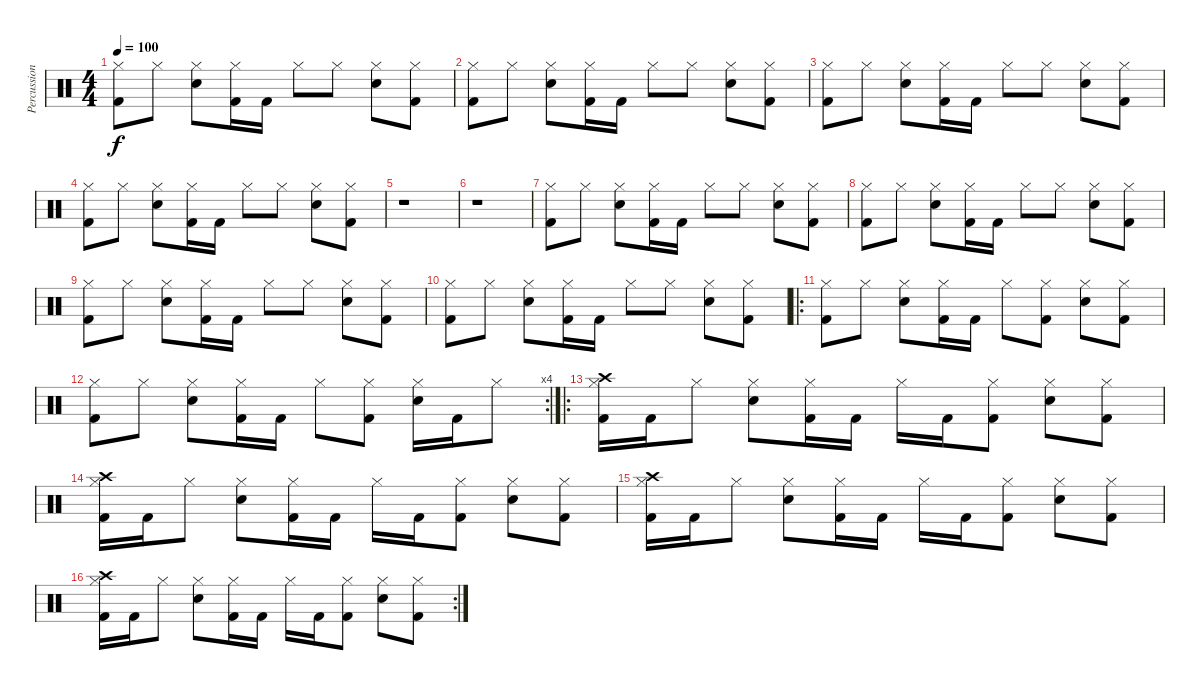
\track ("Percussion" "Percussion") {instrument percussion}
\staff {score}
\articulation defaults
\ts (4 4)
\tempo 100
\clef neutral
\ks c
("Hi-Hat (closed)" "Kick (hit) 2").8{dy f} "Hi-Hat (closed)".8 ("Hi-Hat (closed)" "Electric Snare (hit)").8 ("Hi-Hat (closed)" "Kick (hit) 2").16 "Kick (hit) 2".16 "Hi-Hat (closed)".8 "Hi-Hat (closed)".8 ("Hi-Hat (closed)" "Electric Snare (hit)").8 ("Hi-Hat (closed)" "Kick (hit) 2").8 |
("Hi-Hat (closed)" "Kick (hit) 2").8 "Hi-Hat (closed)".8 ("Hi-Hat (closed)" "Electric Snare (hit)").8 ("Hi-Hat (closed)" "Kick (hit) 2").16 "Kick (hit) 2".16 "Hi-Hat (closed)".8 "Hi-Hat (closed)".8 ("Hi-Hat (closed)" "Electric Snare (hit)").8 ("Hi-Hat (closed)" "Kick (hit) 2").8 |
("Hi-Hat (closed)" "Kick (hit) 2").8 "Hi-Hat (closed)".8 ("Hi-Hat (closed)" "Electric Snare (hit)").8 ("Hi-Hat (closed)" "Kick (hit) 2").16 "Kick (hit) 2".16 "Hi-Hat (closed)".8 "Hi-Hat (closed)".8 ("Hi-Hat (closed)" "Electric Snare (hit)").8 ("Hi-Hat (closed)" "Kick (hit) 2").8 |
("Hi-Hat (closed)" "Kick (hit) 2").8 "Hi-Hat (closed)".8 ("Hi-Hat (closed)" "Electric Snare (hit)").8 ("Hi-Hat (closed)" "Kick (hit) 2").16 "Kick (hit) 2".16 "Hi-Hat (closed)".8 "Hi-Hat (closed)".8 ("Hi-Hat (closed)" "Electric Snare (hit)").8 ("Hi-Hat (closed)" "Kick (hit) 2").8 |
r.1 |
r.1 |
("Hi-Hat (closed)" "Kick (hit) 2").8 "Hi-Hat (closed)".8 ("Hi-Hat (closed)" "Electric Snare (hit)").8 ("Hi-Hat (closed)" "Kick (hit) 2").16 "Kick (hit) 2".16 "Hi-Hat (closed)".8 "Hi-Hat (closed)".8 ("Hi-Hat (closed)" "Electric Snare (hit)").8 ("Hi-Hat (closed)" "Kick (hit) 2").8 |
("Hi-Hat (closed)" "Kick (hit) 2").8 "Hi-Hat (closed)".8 ("Hi-Hat (closed)" "Electric Snare (hit)").8 ("Hi-Hat (closed)" "Kick (hit) 2").16 "Kick (hit) 2".16 "Hi-Hat (closed)".8 "Hi-Hat (closed)".8 ("Hi-Hat (closed)" "Electric Snare (hit)").8 ("Hi-Hat (closed)" "Kick (hit) 2").8 |
("Hi-Hat (closed)" "Kick (hit) 2").8 "Hi-Hat (closed)".8 ("Hi-Hat (closed)" "Electric Snare (hit)").8 ("Hi-Hat (closed)" "Kick (hit) 2").16 "Kick (hit) 2".16 "Hi-Hat (closed)".8 "Hi-Hat (closed)".8 ("Hi-Hat (closed)" "Electric Snare (hit)").8 ("Hi-Hat (closed)" "Kick (hit) 2").8 |
("Hi-Hat (closed)" "Kick (hit) 2").8 "Hi-Hat (closed)".8 ("Hi-Hat (closed)" "Electric Snare (hit)").8 ("Hi-Hat (closed)" "Kick (hit) 2").16 "Kick (hit) 2".16 "Hi-Hat (closed)".8 "Hi-Hat (closed)".8 ("Hi-Hat (closed)" "Electric Snare (hit)").8 ("Hi-Hat (closed)" "Kick (hit) 2").8 |
\ro
("Hi-Hat (closed)" "Kick (hit) 2").8 "Hi-Hat (closed)".8 ("Hi-Hat (closed)" "Electric Snare (hit)").8 ("Hi-Hat (closed)" "Kick (hit) 2").16 "Kick (hit) 2".16 "Hi-Hat (closed)".8 ("Hi-Hat (closed)" "Kick (hit) 2").8 ("Hi-Hat (closed)" "Electric Snare (hit)").8 ("Hi-Hat (closed)" "Kick (hit) 2").8 |
\rc 4
("Hi-Hat (closed)" "Kick (hit) 2").8 "Hi-Hat (closed)".8 ("Hi-Hat (closed)" "Electric Snare (hit)").8 ("Hi-Hat (closed)" "Kick (hit) 2").16 "Kick (hit) 2".16 "Hi-Hat (closed)".8 ("Hi-Hat (closed)" "Kick (hit) 2").8 ("Hi-Hat (closed)" "Electric Snare (hit)").16 "Kick (hit) 2".16 "Hi-Hat (closed)".8 |
\ro
("Crash high (hit)" "Hi-Hat (closed)" "Kick (hit) 2").16 "Kick (hit) 2".16 "Hi-Hat (closed)".8 ("Hi-Hat (closed)" "Snare (hit) 2").8 ("Hi-Hat (closed)" "Kick (hit) 2").16 "Kick (hit) 2".16 "Hi-Hat (closed)".16 "Kick (hit) 2".16 ("Hi-Hat (closed)" "Kick (hit) 2").8 ("Hi-Hat (closed)" "Snare (hit) 2").8 ("Hi-Hat (closed)" "Kick (hit) 2").8 |
("Crash high (hit)" "Hi-Hat (closed)" "Kick (hit) 2").16 "Kick (hit) 2".16 "Hi-Hat (closed)".8 ("Hi-Hat (closed)" "Snare (hit) 2").8 ("Hi-Hat (closed)" "Kick (hit) 2").16 "Kick (hit) 2".16 "Hi-Hat (closed)".16 "Kick (hit) 2".16 ("Hi-Hat (closed)" "Kick (hit) 2").8 ("Hi-Hat (closed)" "Snare (hit) 2").8 ("Hi-Hat (closed)" "Kick (hit) 2").8 |
("Crash high (hit)" "Hi-Hat (closed)" "Kick (hit) 2").16 "Kick (hit) 2".16 "Hi-Hat (closed)".8 ("Hi-Hat (closed)" "Snare (hit) 2").8 ("Hi-Hat (closed)" "Kick (hit) 2").16 "Kick (hit) 2".16 "Hi-Hat (closed)".16 "Kick (hit) 2".16 ("Hi-Hat (closed)" "Kick (hit) 2").8 ("Hi-Hat (closed)" "Snare (hit) 2").8 ("Hi-Hat (closed)" "Kick (hit) 2").8 |
\rc 2
("Crash high (hit)" "Hi-Hat (closed)" "Kick (hit) 2").16 "Kick (hit) 2".16 "Hi-Hat (closed)".8 ("Hi-Hat (closed)" "Snare (hit) 2").8 ("Hi-Hat (closed)" "Kick (hit) 2").16 "Kick (hit) 2".16 "Hi-Hat (closed)".16 "Kick (hit) 2".16 ("Hi-Hat (closed)" "Kick (hit) 2").8 ("Hi-Hat (closed)" "Snare (hit) 2").8 ("Hi-Hat (closed)" "Kick (hit) 2").8
